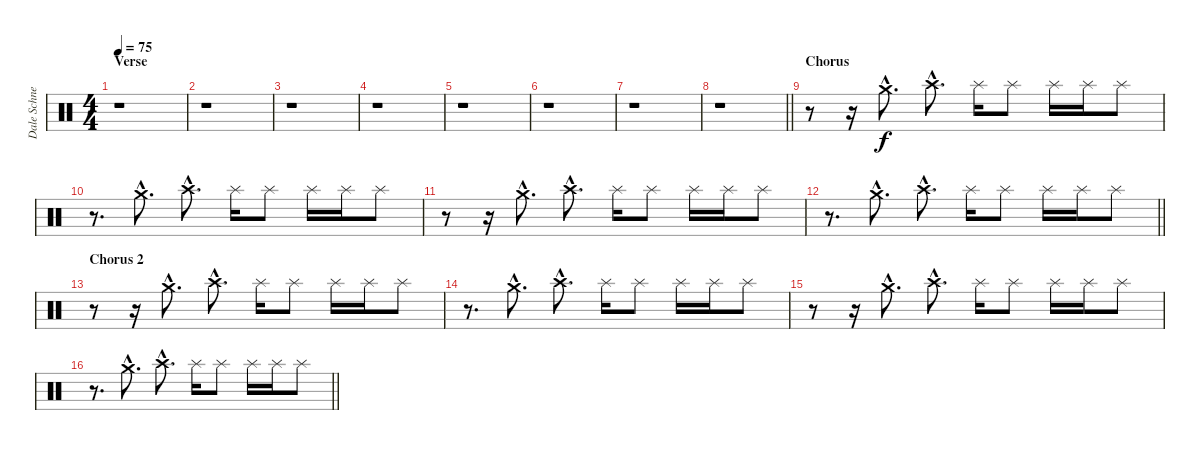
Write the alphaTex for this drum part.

\track ("Dale Schnettler (Drums)" "Dale Schne") {instrument percussion}
\staff {score}
\articulation defaults
\ts (4 4)
\section ("" "Verse")
\tempo 75
\clef neutral
\ks c
r.1{dy f} |
r.1 |
r.1 |
r.1 |
r.1 |
r.1 |
r.1 |
\barLineRight lightlight
r.1 |
\section ("" "Chorus")
r.8 r.16 "Crash medium (hit)"{hac}.8{d} "Crash high (hit)"{hac}.8{d} "Splash (hit)".16 "Splash (hit)".8 "Splash (hit)".16 "Splash (hit)".16 "Splash (hit)".8 |
r.8{d} "Crash medium (hit)"{hac}.8{d} "Crash high (hit)"{hac}.8{d} "Splash (hit)".16 "Splash (hit)".8 "Splash (hit)".16 "Splash (hit)".16 "Splash (hit)".8 |
r.8 r.16 "Crash medium (hit)"{hac}.8{d} "Crash high (hit)"{hac}.8{d} "Splash (hit)".16 "Splash (hit)".8 "Splash (hit)".16 "Splash (hit)".16 "Splash (hit)".8 |
\barLineRight lightlight
r.8{d} "Crash medium (hit)"{hac}.8{d} "Crash high (hit)"{hac}.8{d} "Splash (hit)".16 "Splash (hit)".8 "Splash (hit)".16 "Splash (hit)".16 "Splash (hit)".8 |
\section ("" "Chorus 2")
r.8 r.16 "Crash medium (hit)"{hac}.8{d} "Crash high (hit)"{hac}.8{d} "Splash (hit)".16 "Splash (hit)".8 "Splash (hit)".16 "Splash (hit)".16 "Splash (hit)".8 |
r.8{d} "Crash medium (hit)"{hac}.8{d} "Crash high (hit)"{hac}.8{d} "Splash (hit)".16 "Splash (hit)".8 "Splash (hit)".16 "Splash (hit)".16 "Splash (hit)".8 |
r.8 r.16 "Crash medium (hit)"{hac}.8{d} "Crash high (hit)"{hac}.8{d} "Splash (hit)".16 "Splash (hit)".8 "Splash (hit)".16 "Splash (hit)".16 "Splash (hit)".8 |
\barLineRight lightlight
r.8{d} "Crash medium (hit)"{hac}.8{d} "Crash high (hit)"{hac}.8{d} "Splash (hit)".16 "Splash (hit)".8 "Splash (hit)".16 "Splash (hit)".16 "Splash (hit)".8
